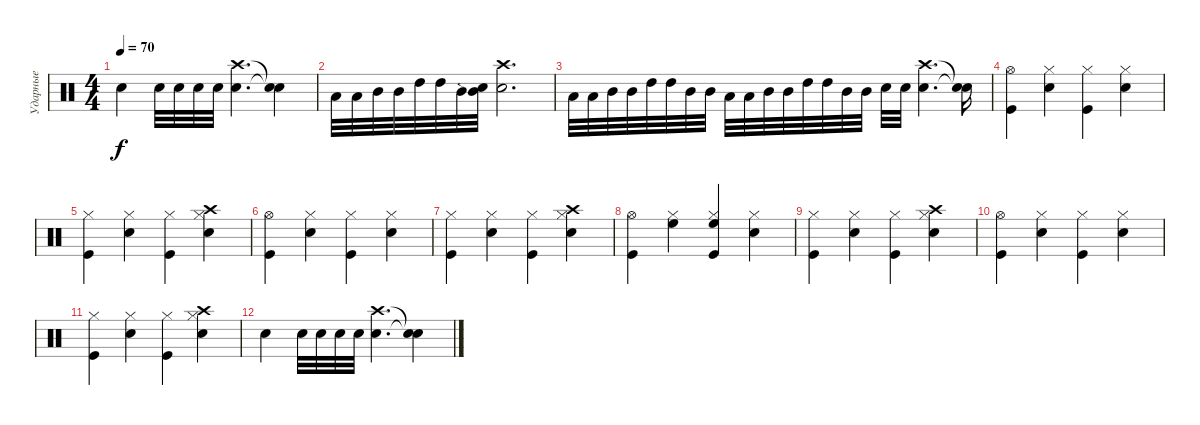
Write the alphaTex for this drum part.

\track ("Ударные" "Ударные") {instrument percussion}
\staff {score}
\articulation defaults
\ts (4 4)
\tempo 70
\clef neutral
\ks c "Snare (hit) 2".4{dy f} "Snare (hit) 2".32 "Snare (hit) 2".32 "Snare (hit) 2".32 "Snare (hit) 2".32
("Crash high (hit)" "Snare (hit) 2").4{d} ("Snare (hit)"{t} "Snare (hit)"{t}).4 |
"Low Tom (hit)".32 "Low Tom (hit)".32 "Mid Tom (hit)".32 "Mid Tom (hit)".32 "High Tom (hit)".32 "High Tom (hit)".32 "Mid Tom (hit)".32 ("Snare (hit)"{t} "Mid Tom (hit)").32 ("Crash high (hit)" "Snare (hit) 2").2{d} |
"Low Tom (hit)".32 "Low Tom (hit)".32 "Mid Tom (hit)".32 "Mid Tom (hit)".32 "High Tom (hit)".32 "High Tom (hit)".32 "Mid Tom (hit)".32 "Mid Tom (hit)".32 "Low Tom (hit)".32 "Low Tom (hit)".32 "Mid Tom (hit)".32 "Mid Tom (hit)".32 "High Tom (hit)".32 "High Tom (hit)".32 "Mid Tom (hit)".32 "Mid Tom (hit)".32 "Snare (hit) 2".32 "Snare (hit) 2".32 ("Crash high (hit)" "Snare (hit) 2").4{d} ("Snare (hit)"{t} "Snare (hit)"{t}).16 |
("Kick (hit)" "Hi-Hat (open)").4 ("Snare (hit) 2" "Hi-Hat (closed)").4 ("Kick (hit)" "Hi-Hat (closed)").4 ("Snare (hit) 2" "Hi-Hat (closed)").4 |
("Kick (hit)" "Hi-Hat (closed)").4 ("Snare (hit) 2" "Hi-Hat (closed)").4 ("Kick (hit)" "Hi-Hat (closed)").4 ("Crash high (hit)" "Snare (hit) 2" "Hi-Hat (closed)").4 |
("Kick (hit)" "Hi-Hat (open)").4 ("Snare (hit) 2" "Hi-Hat (closed)").4 ("Kick (hit)" "Hi-Hat (closed)").4 ("Snare (hit) 2" "Hi-Hat (closed)").4 |
("Kick (hit)" "Hi-Hat (closed)").4 ("Snare (hit) 2" "Hi-Hat (closed)").4 ("Kick (hit)" "Hi-Hat (closed)").4 ("Crash high (hit)" "Snare (hit) 2" "Hi-Hat (closed)").4 |
("Kick (hit)" "Hi-Hat (open)").4 ("High Floor Tom (hit)" "Hi-Hat (closed)").4 ("Kick (hit)" "Hi-Hat (closed)" "High Floor Tom (hit)").4 ("Snare (hit) 2" "Hi-Hat (closed)").4 |
("Kick (hit)" "Hi-Hat (closed)").4 ("Snare (hit) 2" "Hi-Hat (closed)").4 ("Kick (hit)" "Hi-Hat (closed)").4 ("Crash high (hit)" "Snare (hit) 2" "Hi-Hat (closed)").4 |
("Kick (hit)" "Hi-Hat (open)").4 ("Snare (hit) 2" "Hi-Hat (closed)").4 ("Kick (hit)" "Hi-Hat (closed)").4 ("Snare (hit) 2" "Hi-Hat (closed)").4 |
("Kick (hit)" "Hi-Hat (closed)").4 ("Snare (hit) 2" "Hi-Hat (closed)").4 ("Kick (hit)" "Hi-Hat (closed)").4 ("Crash high (hit)" "Snare (hit) 2" "Hi-Hat (closed)").4 |
"Snare (hit) 2".4 "Snare (hit) 2".32 "Snare (hit) 2".32 "Snare (hit) 2".32 "Snare (hit) 2".32 ("Crash high (hit)" "Snare (hit) 2").4{d} ("Snare (hit)"{t} "Snare (hit)"{t}).4
